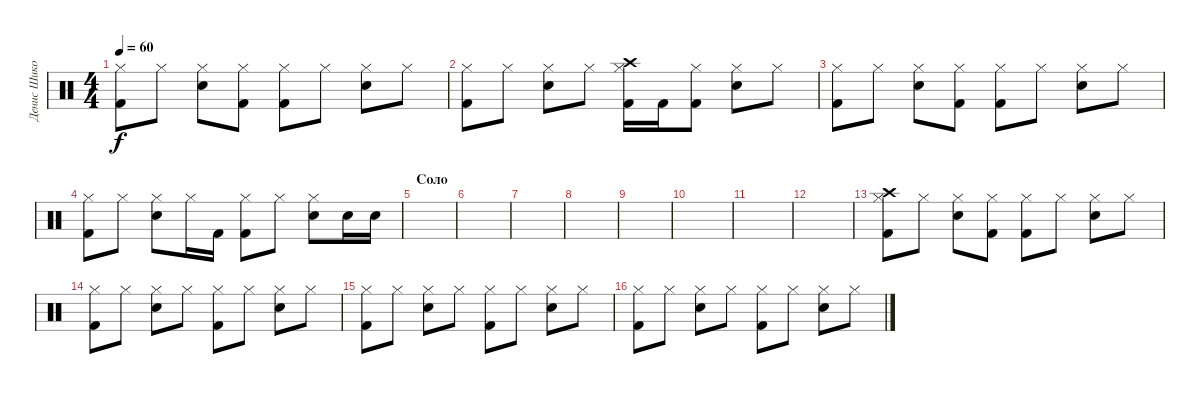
\track ("Денис Шиков" "Денис Шико") {instrument percussion}
\staff {score}
\articulation defaults
\ts (4 4)
\tempo 60
\clef neutral
\ks c
("Hi-Hat (closed)" "Kick (hit) 2").8{dy f} "Hi-Hat (closed)".8 ("Hi-Hat (closed)" "Snare (hit) 2").8 ("Hi-Hat (closed)" "Kick (hit) 2").8 ("Hi-Hat (closed)" "Kick (hit) 2").8 "Hi-Hat (closed)".8 ("Hi-Hat (closed)" "Snare (hit) 2").8 "Hi-Hat (closed)".8 |
("Hi-Hat (closed)" "Kick (hit) 2").8 "Hi-Hat (closed)".8 ("Hi-Hat (closed)" "Snare (hit) 2").8 "Hi-Hat (closed)".8 ("Crash high (hit)" "Hi-Hat (closed)" "Kick (hit) 2").16 "Kick (hit) 2".16 ("Hi-Hat (closed)" "Kick (hit) 2").8 ("Hi-Hat (closed)" "Snare (hit) 2").8 "Hi-Hat (closed)".8 |
("Hi-Hat (closed)" "Kick (hit) 2").8 "Hi-Hat (closed)".8 ("Hi-Hat (closed)" "Snare (hit) 2").8 ("Hi-Hat (closed)" "Kick (hit) 2").8 ("Hi-Hat (closed)" "Kick (hit) 2").8 "Hi-Hat (closed)".8 ("Hi-Hat (closed)" "Snare (hit) 2").8 "Hi-Hat (closed)".8 |
("Hi-Hat (closed)" "Kick (hit) 2").8 "Hi-Hat (closed)".8 ("Hi-Hat (closed)" "Snare (hit) 2").8 "Hi-Hat (closed)".16 "Kick (hit) 2".16 ("Hi-Hat (closed)" "Kick (hit) 2").8 "Hi-Hat (closed)".8 ("Hi-Hat (closed)" "Snare (hit) 2").8 "Snare (hit) 2".16 "Snare (hit) 2".16 |
\section ("" "Соло")
|
|
|
|
|
|
|
|
("Crash high (hit)" "Hi-Hat (closed)" "Kick (hit) 2").8 "Hi-Hat (closed)".8 ("Hi-Hat (closed)" "Snare (hit) 2").8 ("Hi-Hat (closed)" "Kick (hit) 2").8 ("Hi-Hat (closed)" "Kick (hit) 2").8 "Hi-Hat (closed)".8 ("Hi-Hat (closed)" "Snare (hit) 2").8 "Hi-Hat (closed)".8 |
("Hi-Hat (closed)" "Kick (hit) 2").8 "Hi-Hat (closed)".8 ("Hi-Hat (closed)" "Snare (hit) 2").8 "Hi-Hat (closed)".8 ("Hi-Hat (closed)" "Kick (hit) 2").8 "Hi-Hat (closed)".8 ("Hi-Hat (closed)" "Snare (hit) 2").8 "Hi-Hat (closed)".8 |
("Hi-Hat (closed)" "Kick (hit) 2").8 "Hi-Hat (closed)".8 ("Hi-Hat (closed)" "Snare (hit) 2").8 "Hi-Hat (closed)".8 ("Hi-Hat (closed)" "Kick (hit) 2").8 "Hi-Hat (closed)".8 ("Hi-Hat (closed)" "Snare (hit) 2").8 "Hi-Hat (closed)".8 |
("Hi-Hat (closed)" "Kick (hit) 2").8 "Hi-Hat (closed)".8 ("Hi-Hat (closed)" "Snare (hit) 2").8 "Hi-Hat (closed)".8 ("Hi-Hat (closed)" "Kick (hit) 2").8 "Hi-Hat (closed)".8 ("Hi-Hat (closed)" "Snare (hit) 2").8 "Hi-Hat (closed)".8
